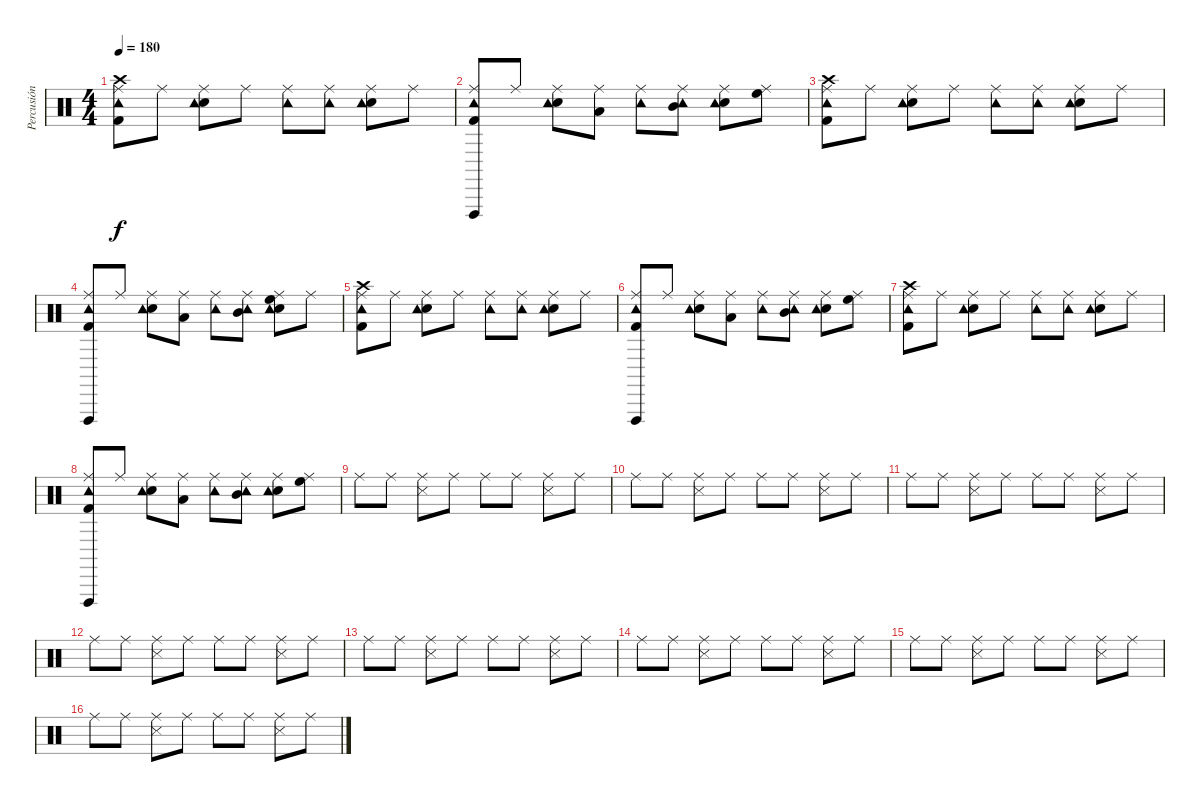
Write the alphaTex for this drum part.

\track ("Percusión" "Percusión") {instrument percussion}
\staff {score}
\articulation defaults
\ts (4 4)
\tempo 180
\clef neutral
\ks c
("Crash high (hit)" "Ride (middle)" "Kick (hit) 2" "Tambourine (hit)").8{dy f} "Ride (middle)".8 ("Electric Snare (hit)" "Ride (middle)" "Tambourine (hit)").8 "Ride (middle)".8 ("Ride (middle)" "Tambourine (hit)").8 ("Ride (middle)" "Tambourine (hit)").8 ("Electric Snare (hit)" "Ride (middle)" "Tambourine (hit)").8 "Ride (middle)".8 |
("Kick (hit) 2" "Tambourine (hit)" "Ride (middle)" "Vibraslap (hit)").8 "Ride (middle)".8 ("Electric Snare (hit)" "Ride (middle)" "Tambourine (hit)").8 ("Ride (middle)" "Low Tom (hit)").8 ("Ride (middle)" "Tambourine (hit)").8 ("Ride (middle)" "Tambourine (hit)" "Mid Tom (hit)").8 ("Electric Snare (hit)" "Ride (middle)" "Tambourine (hit)").8 ("Ride (middle)" "High Floor Tom (hit)").8 |
("Crash high (hit)" "Ride (middle)" "Kick (hit) 2" "Tambourine (hit)").8 "Ride (middle)".8 ("Electric Snare (hit)" "Ride (middle)" "Tambourine (hit)").8 "Ride (middle)".8 ("Ride (middle)" "Tambourine (hit)").8 ("Ride (middle)" "Tambourine (hit)").8 ("Electric Snare (hit)" "Ride (middle)" "Tambourine (hit)").8 "Ride (middle)".8 |
("Kick (hit) 2" "Tambourine (hit)" "Ride (middle)" "Vibraslap (hit)").8 "Ride (middle)".8 ("Electric Snare (hit)" "Ride (middle)" "Tambourine (hit)").8 ("Ride (middle)" "Low Tom (hit)").8 ("Ride (middle)" "Tambourine (hit)").8 ("Ride (middle)" "Tambourine (hit)" "Mid Tom (hit)").8 ("Electric Snare (hit)" "Ride (middle)" "Tambourine (hit)" "High Floor Tom (hit)").8 "Ride (middle)".8 |
("Crash high (hit)" "Ride (middle)" "Kick (hit) 2" "Tambourine (hit)").8 "Ride (middle)".8 ("Electric Snare (hit)" "Ride (middle)" "Tambourine (hit)").8 "Ride (middle)".8 ("Ride (middle)" "Tambourine (hit)").8 ("Ride (middle)" "Tambourine (hit)").8 ("Electric Snare (hit)" "Ride (middle)" "Tambourine (hit)").8 "Ride (middle)".8 |
("Kick (hit) 2" "Tambourine (hit)" "Ride (middle)" "Vibraslap (hit)").8 "Ride (middle)".8 ("Electric Snare (hit)" "Ride (middle)" "Tambourine (hit)").8 ("Ride (middle)" "Low Tom (hit)").8 ("Ride (middle)" "Tambourine (hit)").8 ("Ride (middle)" "Tambourine (hit)" "Mid Tom (hit)").8 ("Electric Snare (hit)" "Ride (middle)" "Tambourine (hit)").8 ("Ride (middle)" "High Floor Tom (hit)").8 |
("Crash high (hit)" "Ride (middle)" "Kick (hit) 2" "Tambourine (hit)").8 "Ride (middle)".8 ("Electric Snare (hit)" "Ride (middle)" "Tambourine (hit)").8 "Ride (middle)".8 ("Ride (middle)" "Tambourine (hit)").8 ("Ride (middle)" "Tambourine (hit)").8 ("Electric Snare (hit)" "Ride (middle)" "Tambourine (hit)").8 "Ride (middle)".8 |
("Kick (hit) 2" "Tambourine (hit)" "Ride (middle)" "Vibraslap (hit)").8 "Ride (middle)".8 ("Electric Snare (hit)" "Ride (middle)" "Tambourine (hit)").8 ("Ride (middle)" "Low Tom (hit)").8 ("Ride (middle)" "Tambourine (hit)").8 ("Ride (middle)" "Tambourine (hit)" "Mid Tom (hit)").8 ("Electric Snare (hit)" "Ride (middle)" "Tambourine (hit)").8 ("Ride (middle)" "High Floor Tom (hit)").8 |
"Ride (middle)".8 "Ride (middle)".8 ("Snare (side stick) 3" "Ride (middle)").8 "Ride (middle)".8 "Ride (middle)".8 "Ride (middle)".8 ("Snare (side stick) 3" "Ride (middle)").8 "Ride (middle)".8 |
"Ride (middle)".8 "Ride (middle)".8 ("Snare (side stick) 3" "Ride (middle)").8 "Ride (middle)".8 "Ride (middle)".8 "Ride (middle)".8 ("Snare (side stick) 3" "Ride (middle)").8 "Ride (middle)".8 |
"Ride (middle)".8 "Ride (middle)".8 ("Snare (side stick) 3" "Ride (middle)").8 "Ride (middle)".8 "Ride (middle)".8 "Ride (middle)".8 ("Snare (side stick) 3" "Ride (middle)").8 "Ride (middle)".8 |
"Ride (middle)".8 "Ride (middle)".8 ("Snare (side stick) 3" "Ride (middle)").8 "Ride (middle)".8 "Ride (middle)".8 "Ride (middle)".8 ("Snare (side stick) 3" "Ride (middle)").8 "Ride (middle)".8 |
"Ride (middle)".8 "Ride (middle)".8 ("Snare (side stick) 3" "Ride (middle)").8 "Ride (middle)".8 "Ride (middle)".8 "Ride (middle)".8 ("Snare (side stick) 3" "Ride (middle)").8 "Ride (middle)".8 |
"Ride (middle)".8 "Ride (middle)".8 ("Snare (side stick) 3" "Ride (middle)").8 "Ride (middle)".8 "Ride (middle)".8 "Ride (middle)".8 ("Snare (side stick) 3" "Ride (middle)").8 "Ride (middle)".8 |
"Ride (middle)".8 "Ride (middle)".8 ("Snare (side stick) 3" "Ride (middle)").8 "Ride (middle)".8 "Ride (middle)".8 "Ride (middle)".8 ("Snare (side stick) 3" "Ride (middle)").8 "Ride (middle)".8 |
"Ride (middle)".8 "Ride (middle)".8 ("Snare (side stick) 3" "Ride (middle)").8 "Ride (middle)".8 "Ride (middle)".8 "Ride (middle)".8 ("Snare (side stick) 3" "Ride (middle)").8 "Ride (middle)".8
